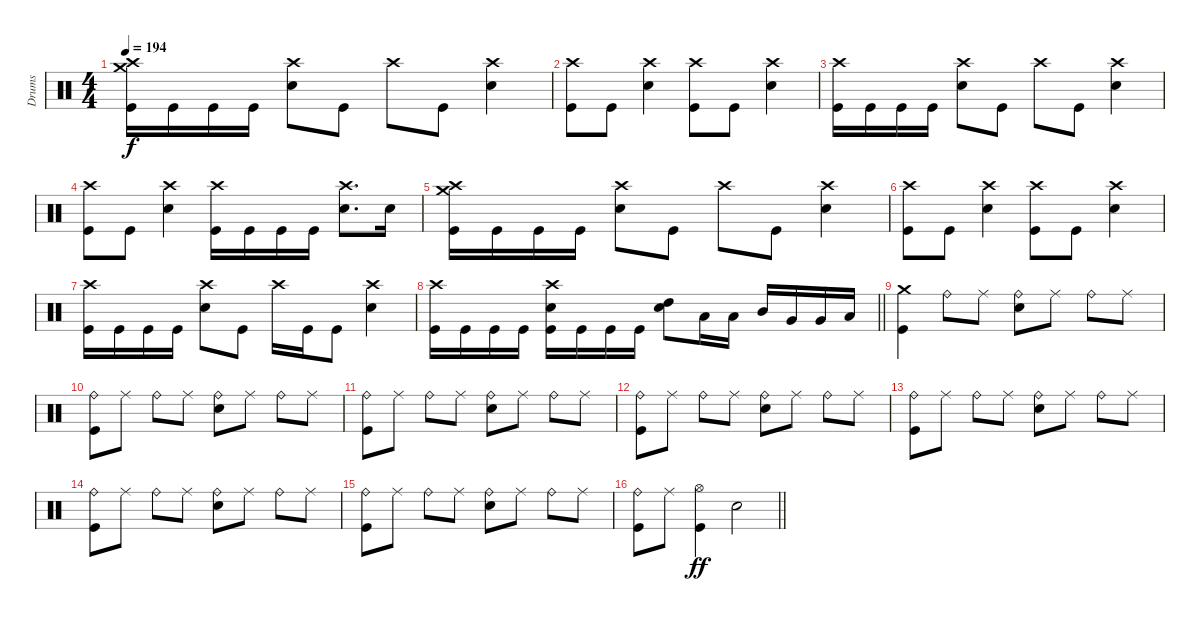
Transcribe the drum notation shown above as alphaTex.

\track ("Drums" "Drums") {instrument percussion}
\staff {score}
\articulation defaults
\ts (4 4)
\tempo 194
\clef neutral
\ks c
("Crash high (hit)" "Crash medium (hit)" "Kick (hit)").16{dy f} "Kick (hit)".16 "Kick (hit)".16 "Kick (hit)".16 ("Crash high (hit)" "Snare (hit) 2").8 "Kick (hit)".8 "Crash high (hit)".8 "Kick (hit)".8 ("Crash high (hit)" "Snare (hit) 2").4 |
("Crash high (hit)" "Kick (hit)").8 "Kick (hit)".8 ("Crash high (hit)" "Snare (hit) 2").4 ("Crash high (hit)" "Kick (hit)").8 "Kick (hit)".8 ("Crash high (hit)" "Snare (hit) 2").4 |
("Crash high (hit)" "Kick (hit)").16 "Kick (hit)".16 "Kick (hit)".16 "Kick (hit)".16 ("Crash high (hit)" "Snare (hit) 2").8 "Kick (hit)".8 "Crash high (hit)".8 "Kick (hit)".8 ("Crash high (hit)" "Snare (hit) 2").4 |
("Crash high (hit)" "Kick (hit)").8 "Kick (hit)".8 ("Crash high (hit)" "Snare (hit) 2").4 ("Crash high (hit)" "Kick (hit)").16 "Kick (hit)".16 "Kick (hit)".16 "Kick (hit)".16 ("Crash high (hit)" "Snare (hit) 2").8{d} "Snare (hit) 2".16 |
("Crash high (hit)" "Crash medium (hit)" "Kick (hit)").16 "Kick (hit)".16 "Kick (hit)".16 "Kick (hit)".16 ("Crash high (hit)" "Snare (hit) 2").8 "Kick (hit)".8 "Crash high (hit)".8 "Kick (hit)".8 ("Crash high (hit)" "Snare (hit) 2").4 |
("Crash high (hit)" "Kick (hit)").8 "Kick (hit)".8 ("Crash high (hit)" "Snare (hit) 2").4 ("Crash high (hit)" "Kick (hit)").8 "Kick (hit)".8 ("Crash high (hit)" "Snare (hit) 2").4 |
("Crash high (hit)" "Kick (hit)").16 "Kick (hit)".16 "Kick (hit)".16 "Kick (hit)".16 ("Crash high (hit)" "Snare (hit) 2").8 "Kick (hit)".8 "Crash high (hit)".16 "Kick (hit)".16 "Kick (hit)".8 ("Crash high (hit)" "Snare (hit) 2").4 |
\barLineRight lightlight
("Crash high (hit)" "Kick (hit)").16 "Kick (hit)".16 "Kick (hit)".16 "Kick (hit)".16 ("Crash high (hit)" "Snare (hit) 2" "Kick (hit)").16 "Kick (hit)".16 "Kick (hit)".16 "Kick (hit)".16 ("High Tom (hit)" "Snare (hit) 2").8 "Low Tom (hit)".16 "Low Tom (hit)".16 "Mid Tom (hit)".16 "Very Low Tom (hit)".16 "Very Low Tom (hit)".16 "Low Floor Tom (hit)".16 |
("Crash medium (hit)" "Kick (hit)").4 "Ride (bell)".8 "Ride (middle)".8 ("Ride (bell)" "Snare (hit) 2").8 "Ride (middle)".8 "Ride (bell)".8 "Ride (middle)".8 |
("Ride (bell)" "Kick (hit)").8 "Ride (middle)".8 "Ride (bell)".8 "Ride (middle)".8 ("Ride (bell)" "Snare (hit) 2").8 "Ride (middle)".8 "Ride (bell)".8 "Ride (middle)".8 |
("Ride (bell)" "Kick (hit)").8 "Ride (middle)".8 "Ride (bell)".8 "Ride (middle)".8 ("Ride (bell)" "Snare (hit) 2").8 "Ride (middle)".8 "Ride (bell)".8 "Ride (middle)".8 |
("Ride (bell)" "Kick (hit)").8 "Ride (middle)".8 "Ride (bell)".8 "Ride (middle)".8 ("Ride (bell)" "Snare (hit) 2").8 "Ride (middle)".8 "Ride (bell)".8 "Ride (middle)".8 |
("Ride (bell)" "Kick (hit)").8 "Ride (middle)".8 "Ride (bell)".8 "Ride (middle)".8 ("Ride (bell)" "Snare (hit) 2").8 "Ride (middle)".8 "Ride (bell)".8 "Ride (middle)".8 |
("Ride (bell)" "Kick (hit)").8 "Ride (middle)".8 "Ride (bell)".8 "Ride (middle)".8 ("Ride (bell)" "Snare (hit) 2").8 "Ride (middle)".8 "Ride (bell)".8 "Ride (middle)".8 |
("Ride (bell)" "Kick (hit)").8 "Ride (middle)".8 "Ride (bell)".8 "Ride (middle)".8 ("Ride (bell)" "Snare (hit) 2").8 "Ride (middle)".8 "Ride (bell)".8 "Ride (middle)".8 |
\barLineRight lightlight
("Ride (bell)" "Kick (hit)").8 "Ride (middle)".8 ("Hi-Hat (open)" "Kick (hit)").4{dy ff} "Snare (hit) 2".2
